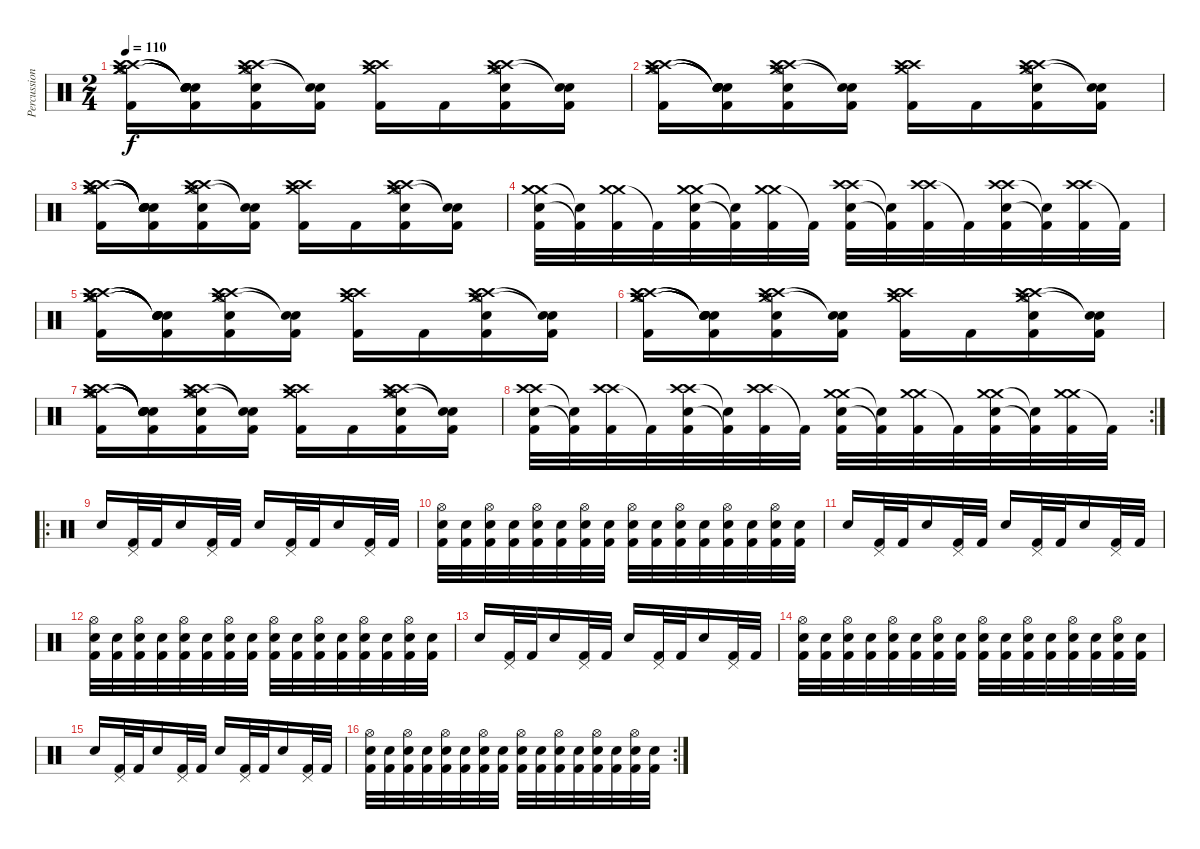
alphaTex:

\track ("Percussion" "Percussion") {instrument percussion}
\staff {score}
\articulation defaults
\ts (2 4)
\tempo 110
\clef neutral
\ks c
("Crash high (hit)" "Crash medium (hit)" "Crash high (hit)" "Crash medium (hit)" "Hi-Hat (open)" "Kick (hit) 2").16{dy f} ("Snare (hit)"{t} "Snare (hit)"{t} "Snare (hit)"{t} "Snare (hit)"{t} "Snare (hit)"{t} "Kick (hit) 2").16 ("Crash high (hit)" "Crash medium (hit)" "Crash high (hit)" "Hi-Hat (open)" "Snare (hit) 2" "Kick (hit) 2").16 ("Snare (hit)"{t} "Snare (hit)"{t} "Kick (hit) 2").16 ("Crash high (hit)" "Crash medium (hit)" "Crash high (hit)" "Kick (hit) 2").16 "Kick (hit) 2".16 ("Crash high (hit)" "Crash medium (hit)" "Crash high (hit)" "Hi-Hat (open)" "Snare (hit) 2" "Kick (hit) 2").16 ("Snare (hit)"{t} "Snare (hit)"{t} "Kick (hit) 2").16 |
("Crash high (hit)" "Crash medium (hit)" "Crash high (hit)" "Crash medium (hit)" "Hi-Hat (open)" "Kick (hit) 2").16 ("Snare (hit)"{t} "Snare (hit)"{t} "Snare (hit)"{t} "Snare (hit)"{t} "Snare (hit)"{t} "Kick (hit) 2").16 ("Crash high (hit)" "Crash medium (hit)" "Crash high (hit)" "Hi-Hat (open)" "Snare (hit) 2" "Kick (hit) 2").16 ("Snare (hit)"{t} "Snare (hit)"{t} "Kick (hit) 2").16 ("Crash high (hit)" "Crash medium (hit)" "Crash high (hit)" "Kick (hit) 2").16 "Kick (hit) 2".16 ("Crash high (hit)" "Crash medium (hit)" "Crash high (hit)" "Hi-Hat (open)" "Snare (hit) 2" "Kick (hit) 2").16 ("Snare (hit)"{t} "Snare (hit)"{t} "Kick (hit) 2").16 |
("Crash high (hit)" "Crash medium (hit)" "Crash high (hit)" "Crash medium (hit)" "Hi-Hat (open)" "Kick (hit) 2").16 ("Snare (hit)"{t} "Snare (hit)"{t} "Snare (hit)"{t} "Snare (hit)"{t} "Snare (hit)"{t} "Kick (hit) 2").16 ("Crash high (hit)" "Crash medium (hit)" "Crash high (hit)" "Hi-Hat (open)" "Snare (hit) 2" "Kick (hit) 2").16 ("Snare (hit)"{t} "Snare (hit)"{t} "Kick (hit) 2").16 ("Crash high (hit)" "Crash medium (hit)" "Crash high (hit)" "Kick (hit) 2").16 "Kick (hit) 2".16 ("Crash high (hit)" "Crash medium (hit)" "Crash high (hit)" "Hi-Hat (open)" "Snare (hit) 2" "Kick (hit) 2").16 ("Snare (hit)"{t} "Snare (hit)"{t} "Kick (hit) 2").16 |
("Crash medium (hit)" "Snare (hit) 2" "Crash medium (hit)" "Kick (hit) 2").32 ("Snare (hit) 2"{t} "Kick (hit) 2"{t}).32 ("Crash medium (hit)" "Crash medium (hit)" "Kick (hit) 2").32 "Kick (hit) 2"{t}.32 ("Crash medium (hit)" "Snare (hit) 2" "Crash medium (hit)" "Kick (hit) 2").32 ("Snare (hit) 2"{t} "Kick (hit) 2"{t}).32 ("Crash medium (hit)" "Crash medium (hit)" "Kick (hit) 2").32 "Kick (hit) 2"{t}.32 ("Crash high (hit)" "Snare (hit) 2" "Crash high (hit)" "Kick (hit) 2").32 ("Snare (hit) 2"{t} "Kick (hit) 2"{t}).32 ("Crash high (hit)" "Crash high (hit)" "Kick (hit) 2").32 "Kick (hit) 2"{t}.32 ("Crash high (hit)" "Snare (hit) 2" "Crash high (hit)" "Kick (hit) 2").32 ("Snare (hit) 2"{t} "Kick (hit) 2"{t}).32 ("Crash high (hit)" "Crash high (hit)" "Kick (hit) 2").32 "Kick (hit) 2"{t}.32 |
("Crash high (hit)" "Crash medium (hit)" "Crash high (hit)" "Crash medium (hit)" "Hi-Hat (open)" "Kick (hit) 2").16 ("Snare (hit)"{t} "Snare (hit)"{t} "Snare (hit)"{t} "Snare (hit)"{t} "Snare (hit)"{t} "Kick (hit) 2").16 ("Crash high (hit)" "Crash medium (hit)" "Crash high (hit)" "Hi-Hat (open)" "Snare (hit) 2" "Kick (hit) 2").16 ("Snare (hit)"{t} "Snare (hit)"{t} "Kick (hit) 2").16 ("Crash high (hit)" "Crash medium (hit)" "Crash high (hit)" "Kick (hit) 2").16 "Kick (hit) 2".16 ("Crash high (hit)" "Crash medium (hit)" "Crash high (hit)" "Hi-Hat (open)" "Snare (hit) 2" "Kick (hit) 2").16 ("Snare (hit)"{t} "Snare (hit)"{t} "Kick (hit) 2").16 |
("Crash high (hit)" "Crash medium (hit)" "Crash high (hit)" "Crash medium (hit)" "Hi-Hat (open)" "Kick (hit) 2").16 ("Snare (hit)"{t} "Snare (hit)"{t} "Snare (hit)"{t} "Snare (hit)"{t} "Snare (hit)"{t} "Kick (hit) 2").16 ("Crash high (hit)" "Crash medium (hit)" "Crash high (hit)" "Hi-Hat (open)" "Snare (hit) 2" "Kick (hit) 2").16 ("Snare (hit)"{t} "Snare (hit)"{t} "Kick (hit) 2").16 ("Crash high (hit)" "Crash medium (hit)" "Crash high (hit)" "Kick (hit) 2").16 "Kick (hit) 2".16 ("Crash high (hit)" "Crash medium (hit)" "Crash high (hit)" "Hi-Hat (open)" "Snare (hit) 2" "Kick (hit) 2").16 ("Snare (hit)"{t} "Snare (hit)"{t} "Kick (hit) 2").16 |
("Crash high (hit)" "Crash medium (hit)" "Crash high (hit)" "Crash medium (hit)" "Hi-Hat (open)" "Kick (hit) 2").16 ("Snare (hit)"{t} "Snare (hit)"{t} "Snare (hit)"{t} "Snare (hit)"{t} "Snare (hit)"{t} "Kick (hit) 2").16 ("Crash high (hit)" "Crash medium (hit)" "Crash high (hit)" "Hi-Hat (open)" "Snare (hit) 2" "Kick (hit) 2").16 ("Snare (hit)"{t} "Snare (hit)"{t} "Kick (hit) 2").16 ("Crash high (hit)" "Crash medium (hit)" "Crash high (hit)" "Kick (hit) 2").16 "Kick (hit) 2".16 ("Crash high (hit)" "Crash medium (hit)" "Crash high (hit)" "Hi-Hat (open)" "Snare (hit) 2" "Kick (hit) 2").16 ("Snare (hit)"{t} "Snare (hit)"{t} "Kick (hit) 2").16 |
\rc 2
("Crash high (hit)" "Snare (hit) 2" "Crash high (hit)" "Kick (hit) 2").32 ("Snare (hit) 2"{t} "Kick (hit) 2"{t}).32 ("Crash high (hit)" "Crash high (hit)" "Kick (hit) 2").32 "Kick (hit) 2"{t}.32 ("Crash high (hit)" "Snare (hit) 2" "Crash high (hit)" "Kick (hit) 2").32 ("Snare (hit) 2"{t} "Kick (hit) 2"{t}).32 ("Crash high (hit)" "Crash high (hit)" "Kick (hit) 2").32 "Kick (hit) 2"{t}.32 ("Crash medium (hit)" "Snare (hit) 2" "Crash medium (hit)" "Kick (hit) 2").32 ("Snare (hit) 2"{t} "Kick (hit) 2"{t}).32 ("Crash medium (hit)" "Crash medium (hit)" "Kick (hit) 2").32 "Kick (hit) 2"{t}.32 ("Crash medium (hit)" "Snare (hit) 2" "Crash medium (hit)" "Kick (hit) 2").32 ("Snare (hit) 2"{t} "Kick (hit) 2"{t}).32 ("Crash medium (hit)" "Crash medium (hit)" "Kick (hit) 2").32 "Kick (hit) 2"{t}.32 |
\ro "Snare (hit) 2".16
("Pedal Hi-Hat (hit)" "Kick (hit) 2").32 "Kick (hit) 2".32 "Snare (hit) 2".16 ("Pedal Hi-Hat (hit)" "Kick (hit) 2").32 "Kick (hit) 2".32 "Snare (hit) 2".16 ("Pedal Hi-Hat (hit)" "Kick (hit) 2").32 "Kick (hit) 2".32 "Snare (hit) 2".16 ("Pedal Hi-Hat (hit)" "Kick (hit) 2").32 "Kick (hit) 2".32 |
("Snare (hit) 2" "Hi-Hat (open)" "Kick (hit) 2").32 ("Snare (hit) 2" "Kick (hit) 2").32 ("Snare (hit) 2" "Hi-Hat (open)" "Kick (hit) 2").32 ("Snare (hit) 2" "Kick (hit) 2").32 ("Snare (hit) 2" "Hi-Hat (open)" "Kick (hit) 2").32 ("Snare (hit) 2" "Kick (hit) 2").32 ("Snare (hit) 2" "Hi-Hat (open)" "Kick (hit) 2").32 ("Snare (hit) 2" "Kick (hit) 2").32 ("Snare (hit) 2" "Hi-Hat (open)" "Kick (hit) 2").32 ("Snare (hit) 2" "Kick (hit) 2").32 ("Snare (hit) 2" "Hi-Hat (open)" "Kick (hit) 2").32 ("Snare (hit) 2" "Kick (hit) 2").32 ("Snare (hit) 2" "Hi-Hat (open)" "Kick (hit) 2").32 ("Snare (hit) 2" "Kick (hit) 2").32 ("Snare (hit) 2" "Hi-Hat (open)" "Kick (hit) 2").32 ("Snare (hit) 2" "Kick (hit) 2").32 |
"Snare (hit) 2".16 ("Pedal Hi-Hat (hit)" "Kick (hit) 2").32 "Kick (hit) 2".32 "Snare (hit) 2".16 ("Pedal Hi-Hat (hit)" "Kick (hit) 2").32 "Kick (hit) 2".32 "Snare (hit) 2".16 ("Pedal Hi-Hat (hit)" "Kick (hit) 2").32 "Kick (hit) 2".32 "Snare (hit) 2".16 ("Pedal Hi-Hat (hit)" "Kick (hit) 2").32 "Kick (hit) 2".32 |
("Snare (hit) 2" "Hi-Hat (open)" "Kick (hit) 2").32 ("Snare (hit) 2" "Kick (hit) 2").32 ("Snare (hit) 2" "Hi-Hat (open)" "Kick (hit) 2").32 ("Snare (hit) 2" "Kick (hit) 2").32 ("Snare (hit) 2" "Hi-Hat (open)" "Kick (hit) 2").32 ("Snare (hit) 2" "Kick (hit) 2").32 ("Snare (hit) 2" "Hi-Hat (open)" "Kick (hit) 2").32 ("Snare (hit) 2" "Kick (hit) 2").32 ("Snare (hit) 2" "Hi-Hat (open)" "Kick (hit) 2").32 ("Snare (hit) 2" "Kick (hit) 2").32 ("Snare (hit) 2" "Hi-Hat (open)" "Kick (hit) 2").32 ("Snare (hit) 2" "Kick (hit) 2").32 ("Snare (hit) 2" "Hi-Hat (open)" "Kick (hit) 2").32 ("Snare (hit) 2" "Kick (hit) 2").32 ("Snare (hit) 2" "Hi-Hat (open)" "Kick (hit) 2").32 ("Snare (hit) 2" "Kick (hit) 2").32 |
"Snare (hit) 2".16 ("Pedal Hi-Hat (hit)" "Kick (hit) 2").32 "Kick (hit) 2".32 "Snare (hit) 2".16 ("Pedal Hi-Hat (hit)" "Kick (hit) 2").32 "Kick (hit) 2".32 "Snare (hit) 2".16 ("Pedal Hi-Hat (hit)" "Kick (hit) 2").32 "Kick (hit) 2".32 "Snare (hit) 2".16 ("Pedal Hi-Hat (hit)" "Kick (hit) 2").32 "Kick (hit) 2".32 |
("Snare (hit) 2" "Hi-Hat (open)" "Kick (hit) 2").32 ("Snare (hit) 2" "Kick (hit) 2").32 ("Snare (hit) 2" "Hi-Hat (open)" "Kick (hit) 2").32 ("Snare (hit) 2" "Kick (hit) 2").32 ("Snare (hit) 2" "Hi-Hat (open)" "Kick (hit) 2").32 ("Snare (hit) 2" "Kick (hit) 2").32 ("Snare (hit) 2" "Hi-Hat (open)" "Kick (hit) 2").32 ("Snare (hit) 2" "Kick (hit) 2").32 ("Snare (hit) 2" "Hi-Hat (open)" "Kick (hit) 2").32 ("Snare (hit) 2" "Kick (hit) 2").32 ("Snare (hit) 2" "Hi-Hat (open)" "Kick (hit) 2").32 ("Snare (hit) 2" "Kick (hit) 2").32 ("Snare (hit) 2" "Hi-Hat (open)" "Kick (hit) 2").32 ("Snare (hit) 2" "Kick (hit) 2").32 ("Snare (hit) 2" "Hi-Hat (open)" "Kick (hit) 2").32 ("Snare (hit) 2" "Kick (hit) 2").32 |
"Snare (hit) 2".16 ("Pedal Hi-Hat (hit)" "Kick (hit) 2").32 "Kick (hit) 2".32 "Snare (hit) 2".16 ("Pedal Hi-Hat (hit)" "Kick (hit) 2").32 "Kick (hit) 2".32 "Snare (hit) 2".16 ("Pedal Hi-Hat (hit)" "Kick (hit) 2").32 "Kick (hit) 2".32 "Snare (hit) 2".16 ("Pedal Hi-Hat (hit)" "Kick (hit) 2").32 "Kick (hit) 2".32 |
\rc 2
("Snare (hit) 2" "Hi-Hat (open)" "Kick (hit) 2").32 ("Snare (hit) 2" "Kick (hit) 2").32 ("Snare (hit) 2" "Hi-Hat (open)" "Kick (hit) 2").32 ("Snare (hit) 2" "Kick (hit) 2").32 ("Snare (hit) 2" "Hi-Hat (open)" "Kick (hit) 2").32 ("Snare (hit) 2" "Kick (hit) 2").32 ("Snare (hit) 2" "Hi-Hat (open)" "Kick (hit) 2").32 ("Snare (hit) 2" "Kick (hit) 2").32 ("Snare (hit) 2" "Hi-Hat (open)" "Kick (hit) 2").32 ("Snare (hit) 2" "Kick (hit) 2").32 ("Snare (hit) 2" "Hi-Hat (open)" "Kick (hit) 2").32 ("Snare (hit) 2" "Kick (hit) 2").32 ("Snare (hit) 2" "Hi-Hat (open)" "Kick (hit) 2").32 ("Snare (hit) 2" "Kick (hit) 2").32 ("Snare (hit) 2" "Hi-Hat (open)" "Kick (hit) 2").32 ("Snare (hit) 2" "Kick (hit) 2").32
